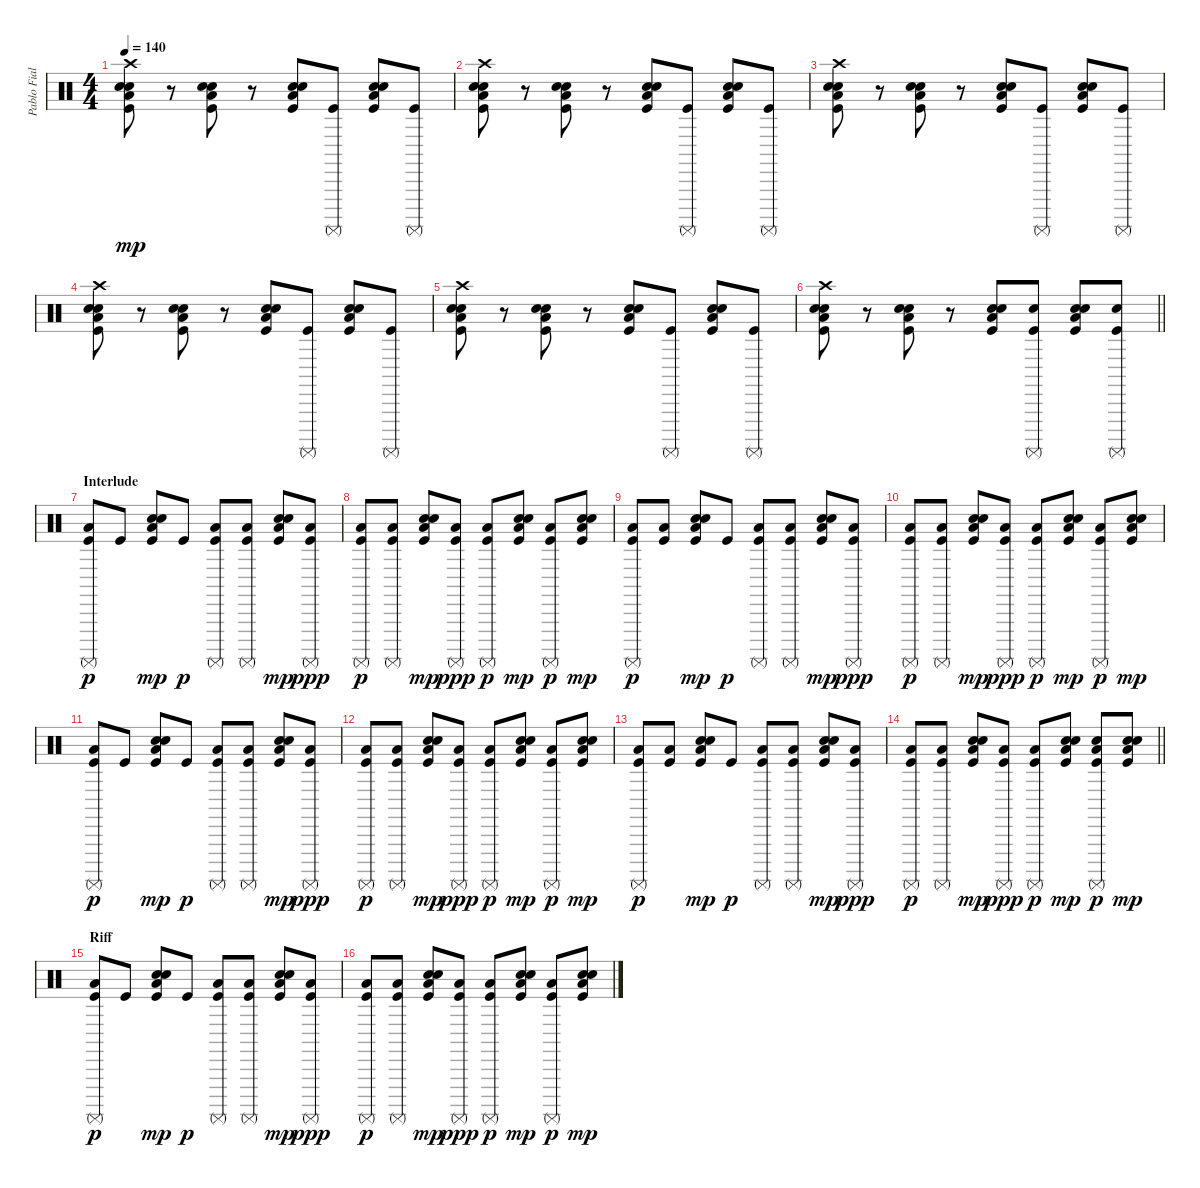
\track ("Pablo Fiallo" "Pablo Fial") {instrument percussion}
\staff {score}
\articulation defaults
\ts (4 4)
\tempo 140
\clef neutral
\ks c
("Low Floor Tom (hit)" "Electric Snare (hit)" "Crash high (hit)" "Kick (hit)" "Snare (hit) 2").8{dy mp} r.8 ("Low Floor Tom (hit)" "Electric Snare (hit)" "Kick (hit)" "Snare (hit) 2").8 r.8 ("Low Floor Tom (hit)" "Electric Snare (hit)" "Kick (hit)" "Snare (hit) 2").8 ("Kick (hit)" "Surdo (mute)").8 ("Low Floor Tom (hit)" "Electric Snare (hit)" "Kick (hit)" "Snare (hit) 2").8 ("Kick (hit)" "Surdo (mute)").8 |
("Low Floor Tom (hit)" "Electric Snare (hit)" "Crash high (hit)" "Kick (hit)" "Snare (hit) 2").8 r.8 ("Low Floor Tom (hit)" "Electric Snare (hit)" "Kick (hit)" "Snare (hit) 2").8 r.8 ("Low Floor Tom (hit)" "Electric Snare (hit)" "Kick (hit)" "Snare (hit) 2").8 ("Kick (hit)" "Surdo (mute)").8 ("Low Floor Tom (hit)" "Electric Snare (hit)" "Kick (hit)" "Snare (hit) 2").8 ("Kick (hit)" "Surdo (mute)").8 |
("Low Floor Tom (hit)" "Electric Snare (hit)" "Crash high (hit)" "Kick (hit)" "Snare (hit) 2").8 r.8 ("Low Floor Tom (hit)" "Electric Snare (hit)" "Kick (hit)" "Snare (hit) 2").8 r.8 ("Low Floor Tom (hit)" "Electric Snare (hit)" "Kick (hit)" "Snare (hit) 2").8 ("Kick (hit)" "Surdo (mute)").8 ("Low Floor Tom (hit)" "Electric Snare (hit)" "Kick (hit)" "Snare (hit) 2").8 ("Kick (hit)" "Surdo (mute)").8 |
("Low Floor Tom (hit)" "Electric Snare (hit)" "Crash high (hit)" "Kick (hit)" "Snare (hit) 2").8 r.8 ("Low Floor Tom (hit)" "Electric Snare (hit)" "Kick (hit)" "Snare (hit) 2").8 r.8 ("Low Floor Tom (hit)" "Electric Snare (hit)" "Kick (hit)" "Snare (hit) 2").8 ("Kick (hit)" "Surdo (mute)").8 ("Low Floor Tom (hit)" "Electric Snare (hit)" "Kick (hit)" "Snare (hit) 2").8 ("Kick (hit)" "Surdo (mute)").8 |
("Low Floor Tom (hit)" "Electric Snare (hit)" "Crash high (hit)" "Kick (hit)" "Snare (hit) 2").8 r.8 ("Low Floor Tom (hit)" "Electric Snare (hit)" "Kick (hit)" "Snare (hit) 2").8 r.8 ("Low Floor Tom (hit)" "Electric Snare (hit)" "Kick (hit)" "Snare (hit) 2").8 ("Kick (hit)" "Surdo (mute)").8 ("Low Floor Tom (hit)" "Electric Snare (hit)" "Kick (hit)" "Snare (hit) 2").8 ("Kick (hit)" "Surdo (mute)").8 |
\barLineRight lightlight
("Low Floor Tom (hit)" "Electric Snare (hit)" "Crash high (hit)" "Kick (hit)" "Snare (hit) 2").8 r.8 ("Low Floor Tom (hit)" "Electric Snare (hit)" "Kick (hit)" "Snare (hit) 2").8 r.8 ("Low Floor Tom (hit)" "Electric Snare (hit)" "Kick (hit)" "Snare (hit) 2").8 ("Electric Snare (hit)" "Kick (hit)" "Surdo (mute)").8 ("Low Floor Tom (hit)" "Electric Snare (hit)" "Kick (hit)" "Snare (hit) 2").8 ("Electric Snare (hit)" "Kick (hit)" "Surdo (mute)").8 |
\section ("" "Interlude")
("Low Floor Tom (hit)" "Kick (hit)" "Surdo (mute)").8{dy p} "Kick (hit)".8 ("Low Floor Tom (hit)" "Electric Snare (hit)" "Kick (hit)" "Snare (hit) 2").8{dy mp} "Kick (hit)".8{dy p} ("Low Floor Tom (hit)" "Kick (hit)" "Surdo (mute)").8 ("Low Floor Tom (hit)" "Kick (hit)" "Surdo (mute)").8 ("Low Floor Tom (hit)" "Electric Snare (hit)" "Kick (hit)" "Snare (hit) 2").8{dy mp} ("Low Floor Tom (hit)" "Kick (hit)" "Surdo (mute)").8{dy ppp} |
("Low Floor Tom (hit)" "Kick (hit)" "Surdo (mute)").8{dy p} ("Low Floor Tom (hit)" "Kick (hit)" "Surdo (mute)").8 ("Low Floor Tom (hit)" "Electric Snare (hit)" "Kick (hit)" "Snare (hit) 2").8{dy mp} ("Low Floor Tom (hit)" "Kick (hit)" "Surdo (mute)").8{dy ppp} ("Low Floor Tom (hit)" "Kick (hit)" "Surdo (mute)").8{dy p} ("Low Floor Tom (hit)" "Electric Snare (hit)" "Kick (hit)" "Snare (hit) 2").8{dy mp} ("Low Floor Tom (hit)" "Kick (hit)" "Surdo (mute)").8{dy p} ("Low Floor Tom (hit)" "Electric Snare (hit)" "Kick (hit)" "Snare (hit) 2").8{dy mp} |
("Low Floor Tom (hit)" "Kick (hit)" "Surdo (mute)").8{dy p} ("Low Floor Tom (hit)" "Kick (hit)").8 ("Low Floor Tom (hit)" "Electric Snare (hit)" "Kick (hit)" "Snare (hit) 2").8{dy mp} "Kick (hit)".8{dy p} ("Low Floor Tom (hit)" "Kick (hit)" "Surdo (mute)").8 ("Low Floor Tom (hit)" "Kick (hit)" "Surdo (mute)").8 ("Low Floor Tom (hit)" "Electric Snare (hit)" "Kick (hit)" "Snare (hit) 2").8{dy mp} ("Low Floor Tom (hit)" "Kick (hit)" "Surdo (mute)").8{dy ppp} |
("Low Floor Tom (hit)" "Kick (hit)" "Surdo (mute)").8{dy p} ("Low Floor Tom (hit)" "Kick (hit)" "Surdo (mute)").8 ("Low Floor Tom (hit)" "Electric Snare (hit)" "Kick (hit)" "Snare (hit) 2").8{dy mp} ("Low Floor Tom (hit)" "Kick (hit)" "Surdo (mute)").8{dy ppp} ("Low Floor Tom (hit)" "Kick (hit)" "Surdo (mute)").8{dy p} ("Low Floor Tom (hit)" "Electric Snare (hit)" "Kick (hit)" "Snare (hit) 2").8{dy mp} ("Low Floor Tom (hit)" "Kick (hit)" "Surdo (mute)").8{dy p} ("Low Floor Tom (hit)" "Electric Snare (hit)" "Kick (hit)" "Snare (hit) 2").8{dy mp} |
("Low Floor Tom (hit)" "Kick (hit)" "Surdo (mute)").8{dy p} "Kick (hit)".8 ("Low Floor Tom (hit)" "Electric Snare (hit)" "Kick (hit)" "Snare (hit) 2").8{dy mp} "Kick (hit)".8{dy p} ("Low Floor Tom (hit)" "Kick (hit)" "Surdo (mute)").8 ("Low Floor Tom (hit)" "Kick (hit)" "Surdo (mute)").8 ("Low Floor Tom (hit)" "Electric Snare (hit)" "Kick (hit)" "Snare (hit) 2").8{dy mp} ("Low Floor Tom (hit)" "Kick (hit)" "Surdo (mute)").8{dy ppp} |
("Low Floor Tom (hit)" "Kick (hit)" "Surdo (mute)").8{dy p} ("Low Floor Tom (hit)" "Kick (hit)" "Surdo (mute)").8 ("Low Floor Tom (hit)" "Electric Snare (hit)" "Kick (hit)" "Snare (hit) 2").8{dy mp} ("Low Floor Tom (hit)" "Kick (hit)" "Surdo (mute)").8{dy ppp} ("Low Floor Tom (hit)" "Kick (hit)" "Surdo (mute)").8{dy p} ("Low Floor Tom (hit)" "Electric Snare (hit)" "Kick (hit)" "Snare (hit) 2").8{dy mp} ("Low Floor Tom (hit)" "Kick (hit)" "Surdo (mute)").8{dy p} ("Low Floor Tom (hit)" "Electric Snare (hit)" "Kick (hit)" "Snare (hit) 2").8{dy mp} |
("Low Floor Tom (hit)" "Kick (hit)" "Surdo (mute)").8{dy p} ("Low Floor Tom (hit)" "Kick (hit)").8 ("Low Floor Tom (hit)" "Electric Snare (hit)" "Kick (hit)" "Snare (hit) 2").8{dy mp} "Kick (hit)".8{dy p} ("Low Floor Tom (hit)" "Kick (hit)" "Surdo (mute)").8 ("Low Floor Tom (hit)" "Kick (hit)" "Surdo (mute)").8 ("Low Floor Tom (hit)" "Electric Snare (hit)" "Kick (hit)" "Snare (hit) 2").8{dy mp} ("Low Floor Tom (hit)" "Kick (hit)" "Surdo (mute)").8{dy ppp} |
\barLineRight lightlight
("Low Floor Tom (hit)" "Kick (hit)" "Surdo (mute)").8{dy p} ("Low Floor Tom (hit)" "Kick (hit)" "Surdo (mute)").8 ("Low Floor Tom (hit)" "Electric Snare (hit)" "Kick (hit)" "Snare (hit) 2").8{dy mp} ("Low Floor Tom (hit)" "Kick (hit)" "Surdo (mute)").8{dy ppp} ("Low Floor Tom (hit)" "Kick (hit)" "Surdo (mute)").8{dy p} ("Low Floor Tom (hit)" "Electric Snare (hit)" "Kick (hit)" "Snare (hit) 2").8{dy mp} ("Low Floor Tom (hit)" "Electric Snare (hit)" "Kick (hit)" "Surdo (mute)").8{dy p} ("Low Floor Tom (hit)" "Electric Snare (hit)" "Kick (hit)" "Snare (hit) 2").8{dy mp} |
\section ("" "Riff")
("Low Floor Tom (hit)" "Kick (hit)" "Surdo (mute)").8{dy p} "Kick (hit)".8 ("Low Floor Tom (hit)" "Electric Snare (hit)" "Kick (hit)" "Snare (hit) 2").8{dy mp} "Kick (hit)".8{dy p} ("Low Floor Tom (hit)" "Kick (hit)" "Surdo (mute)").8 ("Low Floor Tom (hit)" "Kick (hit)" "Surdo (mute)").8 ("Low Floor Tom (hit)" "Electric Snare (hit)" "Kick (hit)" "Snare (hit) 2").8{dy mp} ("Low Floor Tom (hit)" "Kick (hit)" "Surdo (mute)").8{dy ppp} |
("Low Floor Tom (hit)" "Kick (hit)" "Surdo (mute)").8{dy p} ("Low Floor Tom (hit)" "Kick (hit)" "Surdo (mute)").8 ("Low Floor Tom (hit)" "Electric Snare (hit)" "Kick (hit)" "Snare (hit) 2").8{dy mp} ("Low Floor Tom (hit)" "Kick (hit)" "Surdo (mute)").8{dy ppp} ("Low Floor Tom (hit)" "Kick (hit)" "Surdo (mute)").8{dy p} ("Low Floor Tom (hit)" "Electric Snare (hit)" "Kick (hit)" "Snare (hit) 2").8{dy mp} ("Low Floor Tom (hit)" "Kick (hit)" "Surdo (mute)").8{dy p} ("Low Floor Tom (hit)" "Electric Snare (hit)" "Kick (hit)" "Snare (hit) 2").8{dy mp}
